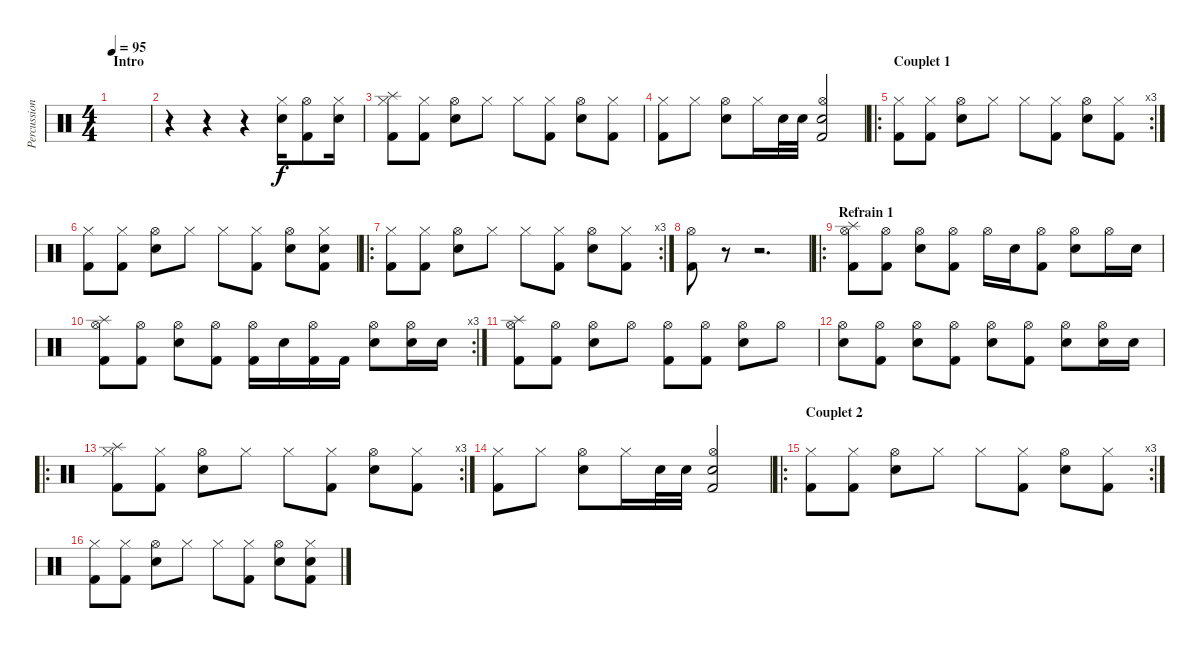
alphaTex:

\track ("Percussions" "Percussion") {instrument percussion}
\staff {score}
\articulation defaults
\ts (4 4)
\section ("" "Intro")
\tempo 95
\clef neutral
\ks c
|
r.4 r.4 r.4 ("Hi-Hat (closed)" "Snare (hit) 2").16 ("Hi-Hat (open)" "Kick (hit) 2").8 ("Hi-Hat (closed)" "Snare (hit) 2").16 |
("Splash (hit)" "Hi-Hat (closed)" "Kick (hit) 2").8 ("Hi-Hat (closed)" "Kick (hit) 2").8 ("Hi-Hat (open)" "Snare (hit) 2").8 "Hi-Hat (closed)".8 "Hi-Hat (closed)".8 ("Hi-Hat (closed)" "Kick (hit) 2").8 ("Hi-Hat (open)" "Snare (hit) 2").8 ("Hi-Hat (closed)" "Kick (hit) 2").8 |
("Hi-Hat (closed)" "Kick (hit) 2").8 "Hi-Hat (closed)".8 ("Hi-Hat (open)" "Snare (hit) 2").8 "Hi-Hat (closed)".16 "Snare (hit) 2".32 "Snare (hit) 2".32 ("Hi-Hat (open)" "Snare (hit) 2" "Kick (hit) 2").2 |
\ro
\rc 3
\section ("" "Couplet 1")
("Hi-Hat (closed)" "Kick (hit) 2").8 ("Hi-Hat (closed)" "Kick (hit) 2").8 ("Hi-Hat (open)" "Snare (hit) 2").8 "Hi-Hat (closed)".8 "Hi-Hat (closed)".8 ("Hi-Hat (closed)" "Kick (hit) 2").8 ("Hi-Hat (open)" "Snare (hit) 2").8 ("Hi-Hat (closed)" "Kick (hit) 2").8 |
("Hi-Hat (closed)" "Kick (hit) 2").8 ("Hi-Hat (closed)" "Kick (hit) 2").8 ("Hi-Hat (open)" "Snare (hit) 2").8 "Hi-Hat (closed)".8 "Hi-Hat (closed)".8 ("Hi-Hat (closed)" "Kick (hit) 2").8 ("Hi-Hat (open)" "Snare (hit) 2").8 ("Hi-Hat (closed)" "Snare (hit) 2" "Kick (hit) 2").8 |
\ro
\rc 3
("Hi-Hat (closed)" "Kick (hit) 2").8 ("Hi-Hat (closed)" "Kick (hit) 2").8 ("Hi-Hat (open)" "Snare (hit) 2").8 "Hi-Hat (closed)".8 "Hi-Hat (closed)".8 ("Hi-Hat (closed)" "Kick (hit) 2").8 ("Hi-Hat (open)" "Snare (hit) 2").8 ("Hi-Hat (closed)" "Kick (hit) 2").8 |
("Hi-Hat (open)" "Kick (hit) 2").8 r.8 r.2{d} |
\ro
\section ("" "Refrain 1")
("Splash (hit)" "Hi-Hat (open)" "Kick (hit) 2").8 ("Hi-Hat (open)" "Kick (hit) 2").8 ("Hi-Hat (open)" "Snare (hit) 2").8 ("Hi-Hat (open)" "Kick (hit) 2").8 "Hi-Hat (open)".16 "Snare (hit) 2".16 ("Hi-Hat (open)" "Kick (hit) 2").8 ("Hi-Hat (open)" "Snare (hit) 2").8 "Hi-Hat (open)".16 "Snare (hit) 2".16 |
\rc 3
("Splash (hit)" "Hi-Hat (open)" "Kick (hit) 2").8 ("Hi-Hat (open)" "Kick (hit) 2").8 ("Hi-Hat (open)" "Snare (hit) 2").8 ("Hi-Hat (open)" "Kick (hit) 2").8 ("Hi-Hat (open)" "Kick (hit) 2").16 "Snare (hit) 2".16 ("Hi-Hat (open)" "Kick (hit) 2").16 "Kick (hit) 2".16 ("Hi-Hat (open)" "Snare (hit) 2").8 ("Hi-Hat (open)" "Snare (hit) 2").16 "Snare (hit) 2".16 |
("Splash (hit)" "Hi-Hat (open)" "Kick (hit) 2").8 ("Hi-Hat (open)" "Kick (hit) 2").8 ("Hi-Hat (open)" "Snare (hit) 2").8 "Hi-Hat (open)".8 ("Hi-Hat (open)" "Kick (hit) 2").8 ("Hi-Hat (open)" "Kick (hit) 2").8 ("Hi-Hat (open)" "Snare (hit) 2").8 "Hi-Hat (open)".8 |
("Hi-Hat (open)" "Snare (hit) 2").8 ("Hi-Hat (open)" "Kick (hit) 2").8 ("Hi-Hat (open)" "Snare (hit) 2").8 ("Hi-Hat (open)" "Kick (hit) 2").8 ("Hi-Hat (open)" "Snare (hit) 2").8 ("Hi-Hat (open)" "Kick (hit) 2").8 ("Hi-Hat (open)" "Snare (hit) 2").8 ("Hi-Hat (open)" "Snare (hit) 2").16 "Snare (hit) 2".16 |
\ro
\rc 3
("Splash (hit)" "Hi-Hat (closed)" "Kick (hit) 2").8 ("Hi-Hat (closed)" "Kick (hit) 2").8 ("Hi-Hat (open)" "Snare (hit) 2").8 "Hi-Hat (closed)".8 "Hi-Hat (closed)".8 ("Hi-Hat (closed)" "Kick (hit) 2").8 ("Hi-Hat (open)" "Snare (hit) 2").8 ("Hi-Hat (closed)" "Kick (hit) 2").8 |
("Hi-Hat (closed)" "Kick (hit) 2").8 "Hi-Hat (closed)".8 ("Hi-Hat (open)" "Snare (hit) 2").8 "Hi-Hat (closed)".16 "Snare (hit) 2".32 "Snare (hit) 2".32 ("Hi-Hat (open)" "Snare (hit) 2" "Kick (hit) 2").2 |
\ro
\rc 3
\section ("" "Couplet 2")
("Hi-Hat (closed)" "Kick (hit) 2").8 ("Hi-Hat (closed)" "Kick (hit) 2").8 ("Hi-Hat (open)" "Snare (hit) 2").8 "Hi-Hat (closed)".8 "Hi-Hat (closed)".8 ("Hi-Hat (closed)" "Kick (hit) 2").8 ("Hi-Hat (open)" "Snare (hit) 2").8 ("Hi-Hat (closed)" "Kick (hit) 2").8 |
("Hi-Hat (closed)" "Kick (hit) 2").8 ("Hi-Hat (closed)" "Kick (hit) 2").8 ("Hi-Hat (open)" "Snare (hit) 2").8 "Hi-Hat (closed)".8 "Hi-Hat (closed)".8 ("Hi-Hat (closed)" "Kick (hit) 2").8 ("Hi-Hat (open)" "Snare (hit) 2").8 ("Hi-Hat (closed)" "Snare (hit) 2" "Kick (hit) 2").8
